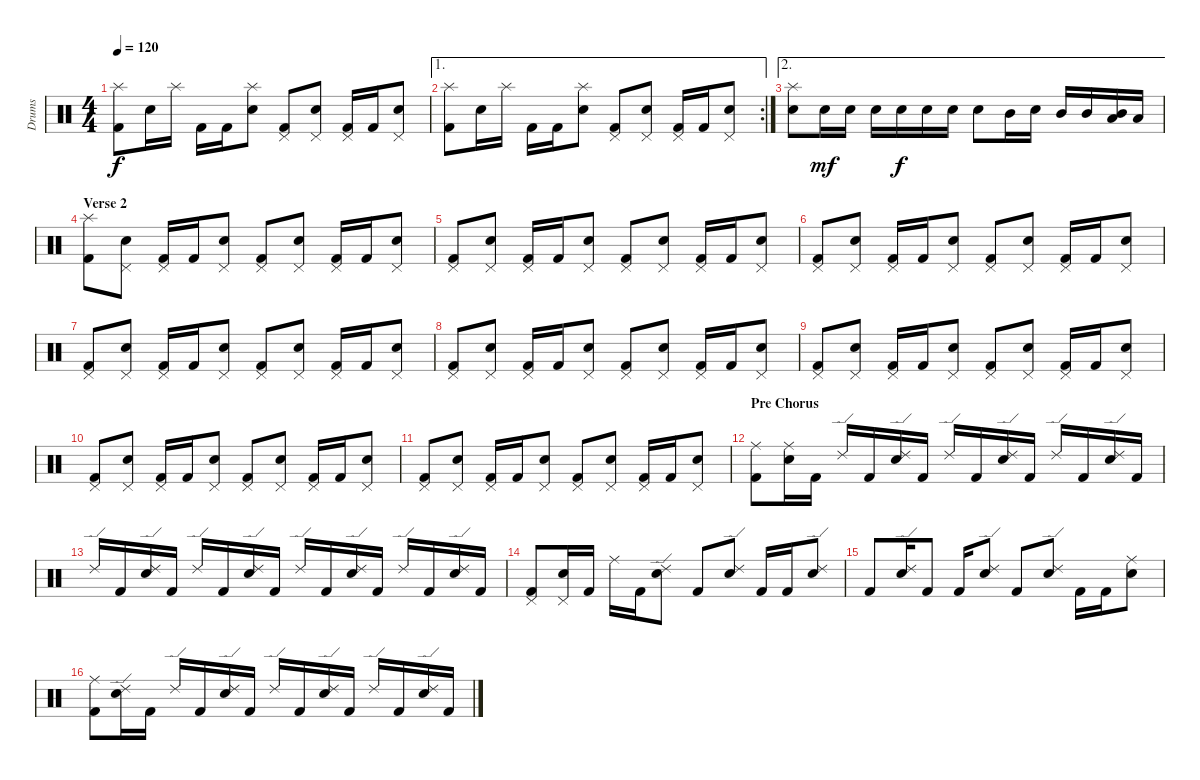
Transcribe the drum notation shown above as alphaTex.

\track ("Drums" "Drums") {instrument percussion}
\staff {score}
\articulation defaults
\ts (4 4)
\tempo 120
\clef neutral
\ks c
("Splash (hit)" "Kick (hit) 2").8{dy f} "Electric Snare (hit)".16 "Splash (hit)".16 "Kick (hit) 2".16 "Kick (hit) 2".16 ("Splash (hit)" "Electric Snare (hit)").8 ("Pedal Hi-Hat (hit)" "Kick (hit) 2").8 ("Pedal Hi-Hat (hit)" "Electric Snare (hit)").8 ("Pedal Hi-Hat (hit)" "Kick (hit) 2").16 "Kick (hit) 2".16 ("Pedal Hi-Hat (hit)" "Electric Snare (hit)").8 |
\ae 1
\rc 2
("Splash (hit)" "Kick (hit) 2").8 "Electric Snare (hit)".16 "Splash (hit)".16 "Kick (hit) 2".16 "Kick (hit) 2".16 ("Splash (hit)" "Electric Snare (hit)").8 ("Pedal Hi-Hat (hit)" "Kick (hit) 2").8 ("Pedal Hi-Hat (hit)" "Electric Snare (hit)").8 ("Pedal Hi-Hat (hit)" "Kick (hit) 2").16 "Kick (hit) 2".16 ("Pedal Hi-Hat (hit)" "Electric Snare (hit)").8 |
\ae 2
("Splash (hit)" "Electric Snare (hit)").8 "Electric Snare (hit)".16{dy mf} "Electric Snare (hit)".16 "Electric Snare (hit)".16 "Electric Snare (hit)".16{dy f} "Electric Snare (hit)".16 "Electric Snare (hit)".16 "Electric Snare (hit)".8 "Mid Tom (hit)".16 "Electric Snare (hit)".16 "Mid Tom (hit)".16 "Mid Tom (hit)".16 ("Mid Tom (hit)" "Low Tom (hit)").16 "Low Tom (hit)".16 |
\section ("" "Verse 2")
("Splash (hit)" "Kick (hit) 2").8 ("Pedal Hi-Hat (hit)" "Electric Snare (hit)").8 ("Pedal Hi-Hat (hit)" "Kick (hit) 2").16 "Kick (hit) 2".16 ("Pedal Hi-Hat (hit)" "Electric Snare (hit)").8 ("Pedal Hi-Hat (hit)" "Kick (hit) 2").8 ("Pedal Hi-Hat (hit)" "Electric Snare (hit)").8 ("Pedal Hi-Hat (hit)" "Kick (hit) 2").16 "Kick (hit) 2".16 ("Pedal Hi-Hat (hit)" "Electric Snare (hit)").8 |
("Pedal Hi-Hat (hit)" "Kick (hit) 2").8 ("Pedal Hi-Hat (hit)" "Electric Snare (hit)").8 ("Pedal Hi-Hat (hit)" "Kick (hit) 2").16 "Kick (hit) 2".16 ("Pedal Hi-Hat (hit)" "Electric Snare (hit)").8 ("Pedal Hi-Hat (hit)" "Kick (hit) 2").8 ("Pedal Hi-Hat (hit)" "Electric Snare (hit)").8 ("Pedal Hi-Hat (hit)" "Kick (hit) 2").16 "Kick (hit) 2".16 ("Pedal Hi-Hat (hit)" "Electric Snare (hit)").8 |
("Pedal Hi-Hat (hit)" "Kick (hit) 2").8 ("Pedal Hi-Hat (hit)" "Electric Snare (hit)").8 ("Pedal Hi-Hat (hit)" "Kick (hit) 2").16 "Kick (hit) 2".16 ("Pedal Hi-Hat (hit)" "Electric Snare (hit)").8 ("Pedal Hi-Hat (hit)" "Kick (hit) 2").8 ("Pedal Hi-Hat (hit)" "Electric Snare (hit)").8 ("Pedal Hi-Hat (hit)" "Kick (hit) 2").16 "Kick (hit) 2".16 ("Pedal Hi-Hat (hit)" "Electric Snare (hit)").8 |
("Pedal Hi-Hat (hit)" "Kick (hit) 2").8 ("Pedal Hi-Hat (hit)" "Electric Snare (hit)").8 ("Pedal Hi-Hat (hit)" "Kick (hit) 2").16 "Kick (hit) 2".16 ("Pedal Hi-Hat (hit)" "Electric Snare (hit)").8 ("Pedal Hi-Hat (hit)" "Kick (hit) 2").8 ("Pedal Hi-Hat (hit)" "Electric Snare (hit)").8 ("Pedal Hi-Hat (hit)" "Kick (hit) 2").16 "Kick (hit) 2".16 ("Pedal Hi-Hat (hit)" "Electric Snare (hit)").8 |
("Pedal Hi-Hat (hit)" "Kick (hit) 2").8 ("Pedal Hi-Hat (hit)" "Electric Snare (hit)").8 ("Pedal Hi-Hat (hit)" "Kick (hit) 2").16 "Kick (hit) 2".16 ("Pedal Hi-Hat (hit)" "Electric Snare (hit)").8 ("Pedal Hi-Hat (hit)" "Kick (hit) 2").8 ("Pedal Hi-Hat (hit)" "Electric Snare (hit)").8 ("Pedal Hi-Hat (hit)" "Kick (hit) 2").16 "Kick (hit) 2".16 ("Pedal Hi-Hat (hit)" "Electric Snare (hit)").8 |
("Pedal Hi-Hat (hit)" "Kick (hit) 2").8 ("Pedal Hi-Hat (hit)" "Electric Snare (hit)").8 ("Pedal Hi-Hat (hit)" "Kick (hit) 2").16 "Kick (hit) 2".16 ("Pedal Hi-Hat (hit)" "Electric Snare (hit)").8 ("Pedal Hi-Hat (hit)" "Kick (hit) 2").8 ("Pedal Hi-Hat (hit)" "Electric Snare (hit)").8 ("Pedal Hi-Hat (hit)" "Kick (hit) 2").16 "Kick (hit) 2".16 ("Pedal Hi-Hat (hit)" "Electric Snare (hit)").8 |
("Pedal Hi-Hat (hit)" "Kick (hit) 2").8 ("Pedal Hi-Hat (hit)" "Electric Snare (hit)").8 ("Pedal Hi-Hat (hit)" "Kick (hit) 2").16 "Kick (hit) 2".16 ("Pedal Hi-Hat (hit)" "Electric Snare (hit)").8 ("Pedal Hi-Hat (hit)" "Kick (hit) 2").8 ("Pedal Hi-Hat (hit)" "Electric Snare (hit)").8 ("Pedal Hi-Hat (hit)" "Kick (hit) 2").16 "Kick (hit) 2".16 ("Pedal Hi-Hat (hit)" "Electric Snare (hit)").8 |
("Pedal Hi-Hat (hit)" "Kick (hit) 2").8 ("Pedal Hi-Hat (hit)" "Electric Snare (hit)").8 ("Pedal Hi-Hat (hit)" "Kick (hit) 2").16 "Kick (hit) 2".16 ("Pedal Hi-Hat (hit)" "Electric Snare (hit)").8 ("Pedal Hi-Hat (hit)" "Kick (hit) 2").8 ("Pedal Hi-Hat (hit)" "Electric Snare (hit)").8 ("Pedal Hi-Hat (hit)" "Kick (hit) 2").16 "Kick (hit) 2".16 ("Pedal Hi-Hat (hit)" "Electric Snare (hit)").8 |
\section ("" "Pre Chorus")
("Ride (middle)" "Kick (hit) 2").8 ("Ride (middle)" "Electric Snare (hit)").16 "Kick (hit) 2".16 "Ride (edge) 2".16 "Kick (hit) 2".16 ("Ride (edge) 2" "Electric Snare (hit)").16 "Kick (hit) 2".16 "Ride (edge) 2".16 "Kick (hit) 2".16 ("Ride (edge) 2" "Electric Snare (hit)").16 "Kick (hit) 2".16 "Ride (edge) 2".16 "Kick (hit) 2".16 ("Ride (edge) 2" "Electric Snare (hit)").16 "Kick (hit) 2".16 |
"Ride (edge) 2".16 "Kick (hit) 2".16 ("Ride (edge) 2" "Electric Snare (hit)").16 "Kick (hit) 2".16 "Ride (edge) 2".16 "Kick (hit) 2".16 ("Ride (edge) 2" "Electric Snare (hit)").16 "Kick (hit) 2".16 "Ride (edge) 2".16 "Kick (hit) 2".16 ("Ride (edge) 2" "Electric Snare (hit)").16 "Kick (hit) 2".16 "Ride (edge) 2".16 "Kick (hit) 2".16 ("Ride (edge) 2" "Electric Snare (hit)").16 "Kick (hit) 2".16 |
("Pedal Hi-Hat (hit)" "Kick (hit) 2").8 ("Pedal Hi-Hat (hit)" "Electric Snare (hit)").16 "Kick (hit) 2".16 "Ride (middle)".16 "Kick (hit) 2".16 ("Ride (edge) 2" "Electric Snare (hit)").8 "Kick (hit) 2".8 ("Ride (edge) 2" "Electric Snare (hit)").8 "Kick (hit) 2".16 "Kick (hit) 2".16 ("Ride (edge) 2" "Electric Snare (hit)").8 |
"Kick (hit) 2".8 ("Ride (edge) 2" "Electric Snare (hit)").16 "Kick (hit) 2".8 "Kick (hit) 2".16 ("Ride (edge) 2" "Electric Snare (hit)").8 "Kick (hit) 2".8 ("Ride (edge) 2" "Electric Snare (hit)").8 "Kick (hit) 2".16 "Kick (hit) 2".16 ("Ride (middle)" "Electric Snare (hit)").8 |
("Ride (middle)" "Kick (hit) 2").8 ("Ride (edge) 2" "Electric Snare (hit)").16 "Kick (hit) 2".16 "Ride (edge) 2".16 "Kick (hit) 2".16 ("Ride (edge) 2" "Electric Snare (hit)").16 "Kick (hit) 2".16 "Ride (edge) 2".16 "Kick (hit) 2".16 ("Ride (edge) 2" "Electric Snare (hit)").16 "Kick (hit) 2".16 "Ride (edge) 2".16 "Kick (hit) 2".16 ("Ride (edge) 2" "Electric Snare (hit)").16 "Kick (hit) 2".16
